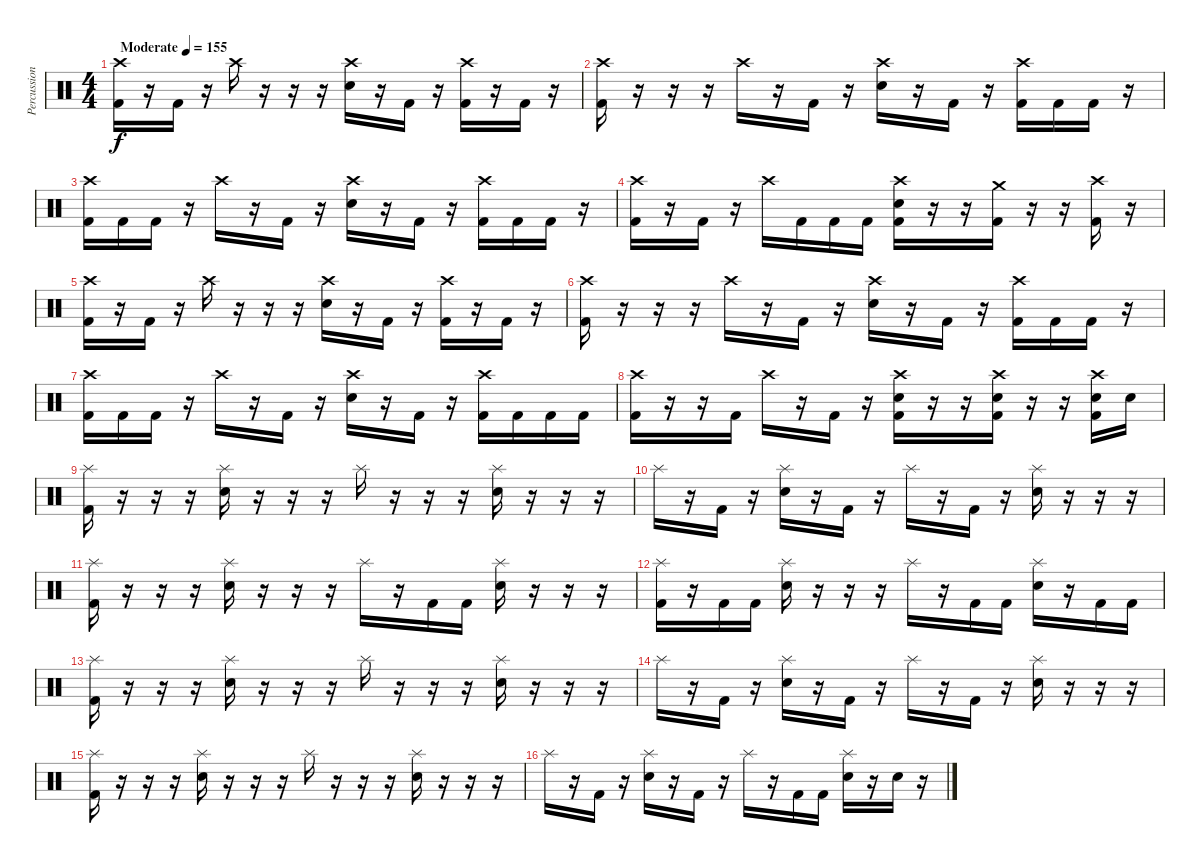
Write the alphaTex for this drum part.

\track ("Percussion" "Percussion") {instrument percussion}
\staff {score}
\articulation defaults
\ts (4 4)
\tempo (155 "Moderate")
\clef neutral
\ks c
("Crash high (hit)" "Kick (hit) 2").16{dy f} r.16 "Kick (hit) 2".16 r.16 "Crash high (hit)".16 r.16 r.16 r.16 ("Crash high (hit)" "Snare (hit) 2").16 r.16 "Kick (hit) 2".16 r.16 ("Crash high (hit)" "Kick (hit) 2").16 r.16 "Kick (hit) 2".16 r.16 |
("Crash high (hit)" "Kick (hit) 2").16 r.16 r.16 r.16 "Crash high (hit)".16 r.16 "Kick (hit) 2".16 r.16 ("Crash high (hit)" "Snare (hit) 2").16 r.16 "Kick (hit) 2".16 r.16 ("Crash high (hit)" "Kick (hit) 2").16 "Kick (hit) 2".16 "Kick (hit) 2".16 r.16 |
("Crash high (hit)" "Kick (hit) 2").16 "Kick (hit) 2".16 "Kick (hit) 2".16 r.16 "Crash high (hit)".16 r.16 "Kick (hit) 2".16 r.16 ("Crash high (hit)" "Snare (hit) 2").16 r.16 "Kick (hit) 2".16 r.16 ("Crash high (hit)" "Kick (hit) 2").16 "Kick (hit) 2".16 "Kick (hit) 2".16 r.16 |
("Crash high (hit)" "Kick (hit) 2").16 r.16 "Kick (hit) 2".16 r.16 "Crash high (hit)".16 "Kick (hit) 2".16 "Kick (hit) 2".16 "Kick (hit) 2".16 ("Crash high (hit)" "Snare (hit) 2" "Kick (hit) 2").16 r.16 r.16 ("Crash medium (hit)" "Kick (hit) 2").16 r.16 r.16 ("Crash high (hit)" "Kick (hit) 2").16 r.16 |
("Crash high (hit)" "Kick (hit) 2").16 r.16 "Kick (hit) 2".16 r.16 "Crash high (hit)".16 r.16 r.16 r.16 ("Crash high (hit)" "Snare (hit) 2").16 r.16 "Kick (hit) 2".16 r.16 ("Crash high (hit)" "Kick (hit) 2").16 r.16 "Kick (hit) 2".16 r.16 |
("Crash high (hit)" "Kick (hit) 2").16 r.16 r.16 r.16 "Crash high (hit)".16 r.16 "Kick (hit) 2".16 r.16 ("Crash high (hit)" "Snare (hit) 2").16 r.16 "Kick (hit) 2".16 r.16 ("Crash high (hit)" "Kick (hit) 2").16 "Kick (hit) 2".16 "Kick (hit) 2".16 r.16 |
("Crash high (hit)" "Kick (hit) 2").16 "Kick (hit) 2".16 "Kick (hit) 2".16 r.16 "Crash high (hit)".16 r.16 "Kick (hit) 2".16 r.16 ("Crash high (hit)" "Snare (hit) 2").16 r.16 "Kick (hit) 2".16 r.16 ("Crash high (hit)" "Kick (hit) 2").16 "Kick (hit) 2".16 "Kick (hit) 2".16 "Kick (hit) 2".16 |
("Crash high (hit)" "Kick (hit) 2").16 r.16 r.16 "Kick (hit) 2".16 "Crash high (hit)".16 r.16 "Kick (hit) 2".16 r.16 ("Crash high (hit)" "Snare (hit) 2" "Kick (hit) 2").16 r.16 r.16 ("Crash high (hit)" "Snare (hit) 2" "Kick (hit) 2").16 r.16 r.16 ("Crash high (hit)" "Snare (hit) 2" "Kick (hit) 2").16 "Snare (hit) 2".16 |
("Splash (hit)" "Kick (hit) 2").16 r.16 r.16 r.16 ("Splash (hit)" "Snare (hit) 2").16 r.16 r.16 r.16 "Splash (hit)".16 r.16 r.16 r.16 ("Splash (hit)" "Snare (hit) 2").16 r.16 r.16 r.16 |
"Splash (hit)".16 r.16 "Kick (hit) 2".16 r.16 ("Splash (hit)" "Snare (hit) 2").16 r.16 "Kick (hit) 2".16 r.16 "Splash (hit)".16 r.16 "Kick (hit) 2".16 r.16 ("Splash (hit)" "Snare (hit) 2").16 r.16 r.16 r.16 |
("Splash (hit)" "Kick (hit) 2").16 r.16 r.16 r.16 ("Splash (hit)" "Snare (hit) 2").16 r.16 r.16 r.16 "Splash (hit)".16 r.16 "Kick (hit) 2".16 "Kick (hit) 2".16 ("Splash (hit)" "Snare (hit) 2").16 r.16 r.16 r.16 |
("Splash (hit)" "Kick (hit) 2").16 r.16 "Kick (hit) 2".16 "Kick (hit) 2".16 ("Splash (hit)" "Snare (hit) 2").16 r.16 r.16 r.16 "Splash (hit)".16 r.16 "Kick (hit) 2".16 "Kick (hit) 2".16 ("Splash (hit)" "Snare (hit) 2").16 r.16 "Kick (hit) 2".16 "Kick (hit) 2".16 |
("Splash (hit)" "Kick (hit) 2").16 r.16 r.16 r.16 ("Splash (hit)" "Snare (hit) 2").16 r.16 r.16 r.16 "Splash (hit)".16 r.16 r.16 r.16 ("Splash (hit)" "Snare (hit) 2").16 r.16 r.16 r.16 |
"Splash (hit)".16 r.16 "Kick (hit) 2".16 r.16 ("Splash (hit)" "Snare (hit) 2").16 r.16 "Kick (hit) 2".16 r.16 "Splash (hit)".16 r.16 "Kick (hit) 2".16 r.16 ("Splash (hit)" "Snare (hit) 2").16 r.16 r.16 r.16 |
("Splash (hit)" "Kick (hit) 2").16 r.16 r.16 r.16 ("Splash (hit)" "Snare (hit) 2").16 r.16 r.16 r.16 "Splash (hit)".16 r.16 r.16 r.16 ("Splash (hit)" "Snare (hit) 2").16 r.16 r.16 r.16 |
"Splash (hit)".16 r.16 "Kick (hit) 2".16 r.16 ("Splash (hit)" "Snare (hit) 2").16 r.16 "Kick (hit) 2".16 r.16 "Splash (hit)".16 r.16 "Kick (hit) 2".16 "Kick (hit) 2".16 ("Splash (hit)" "Snare (hit) 2").16 r.16 "Snare (hit) 2".16 r.16
